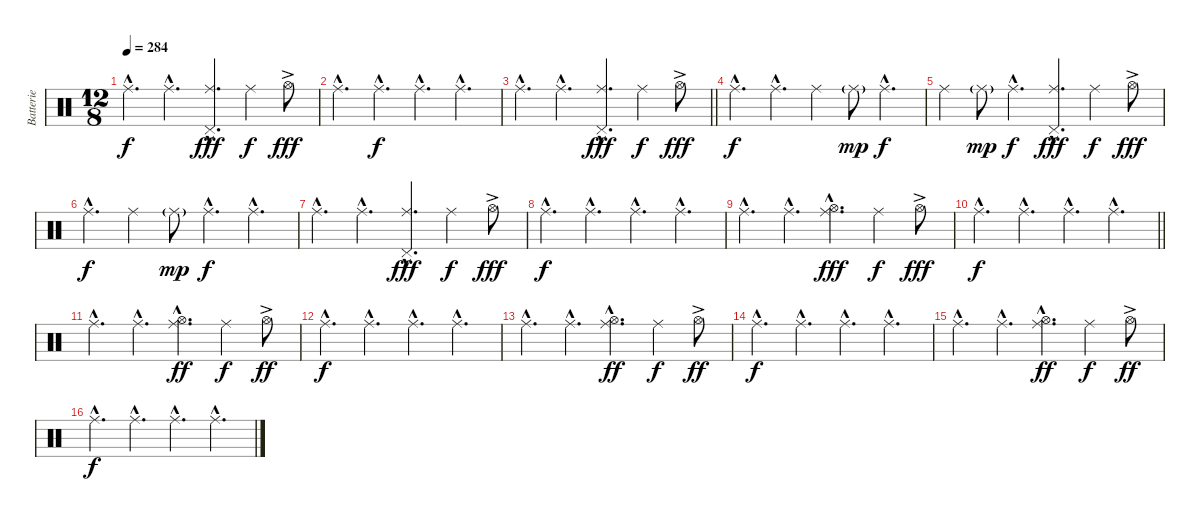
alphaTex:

\track ("Batterie" "Batterie") {instrument percussion}
\staff {score}
\articulation defaults
\ts (12 8)
\tempo 284
\clef neutral
\ks c "Ride (middle)"{hac}.4{d dy f} "Ride (middle)"{hac}.4{d}
("Ride (middle)"{hac} "Pedal Hi-Hat (hit)"{hac}).4{d dy fff} "Ride (middle)".4{dy f} "Hi-Hat (open)"{ac}.8{dy fff} |
"Ride (middle)"{hac}.4{d} "Ride (middle)"{hac}.4{d dy f} "Ride (middle)"{hac}.4{d} "Ride (middle)"{hac}.4{d} |
\barLineRight lightlight "Ride (middle)"{hac}.4{d} "Ride (middle)"{hac}.4{d}
("Ride (middle)"{hac} "Pedal Hi-Hat (hit)"{hac}).4{d dy fff} "Ride (middle)".4{dy f} "Hi-Hat (open)"{ac}.8{dy fff} |
"Ride (middle)"{hac}.4{d dy f} "Ride (middle)"{hac}.4{d} "Ride (middle)".4 "Ride (middle)"{g}.8{dy mp} "Ride (middle)"{hac}.4{d dy f} |
"Ride (middle)".4 "Ride (middle)"{g}.8{dy mp} "Ride (middle)"{hac}.4{d dy f} ("Ride (middle)"{hac} "Pedal Hi-Hat (hit)"{hac}).4{d dy fff} "Ride (middle)".4{dy f} "Hi-Hat (open)"{ac}.8{dy fff} |
"Ride (middle)"{hac}.4{d dy f} "Ride (middle)".4 "Ride (middle)"{g}.8{dy mp} "Ride (middle)"{hac}.4{d dy f} "Ride (middle)"{hac}.4{d} |
"Ride (middle)"{hac}.4{d} "Ride (middle)"{hac}.4{d} ("Ride (middle)"{hac} "Pedal Hi-Hat (hit)"{hac}).4{d dy fff} "Ride (middle)".4{dy f} "Hi-Hat (open)"{ac}.8{dy fff} |
"Ride (middle)"{hac}.4{d dy f} "Ride (middle)"{hac}.4{d} "Ride (middle)"{hac}.4{d} "Ride (middle)"{hac}.4{d} |
"Ride (middle)"{hac}.4{d} "Ride (middle)"{hac}.4{d} ("Ride (middle)"{hac} "Hi-Hat (open)"{hac}).4{d dy fff} "Ride (middle)".4{dy f} "Hi-Hat (open)"{ac}.8{dy fff} |
\barLineRight lightlight "Ride (middle)"{hac}.4{d dy f} "Ride (middle)"{hac}.4{d} "Ride (middle)"{hac}.4{d} "Ride (middle)"{hac}.4{d}
|
"Ride (middle)"{hac}.4{d} "Ride (middle)"{hac}.4{d} ("Ride (middle)"{hac} "Hi-Hat (open)"{hac}).4{d dy ff} "Ride (middle)".4{dy f} "Hi-Hat (open)"{ac}.8{dy ff} |
"Ride (middle)"{hac}.4{d dy f} "Ride (middle)"{hac}.4{d} "Ride (middle)"{hac}.4{d} "Ride (middle)"{hac}.4{d} |
"Ride (middle)"{hac}.4{d} "Ride (middle)"{hac}.4{d} ("Ride (middle)"{hac} "Hi-Hat (open)"{hac}).4{d dy ff} "Ride (middle)".4{dy f} "Hi-Hat (open)"{ac}.8{dy ff} |
"Ride (middle)"{hac}.4{d dy f} "Ride (middle)"{hac}.4{d} "Ride (middle)"{hac}.4{d} "Ride (middle)"{hac}.4{d} |
"Ride (middle)"{hac}.4{d} "Ride (middle)"{hac}.4{d} ("Ride (middle)"{hac} "Hi-Hat (open)"{hac}).4{d dy ff} "Ride (middle)".4{dy f} "Hi-Hat (open)"{ac}.8{dy ff} |
"Ride (middle)"{hac}.4{d dy f} "Ride (middle)"{hac}.4{d} "Ride (middle)"{hac}.4{d} "Ride (middle)"{hac}.4{d}
